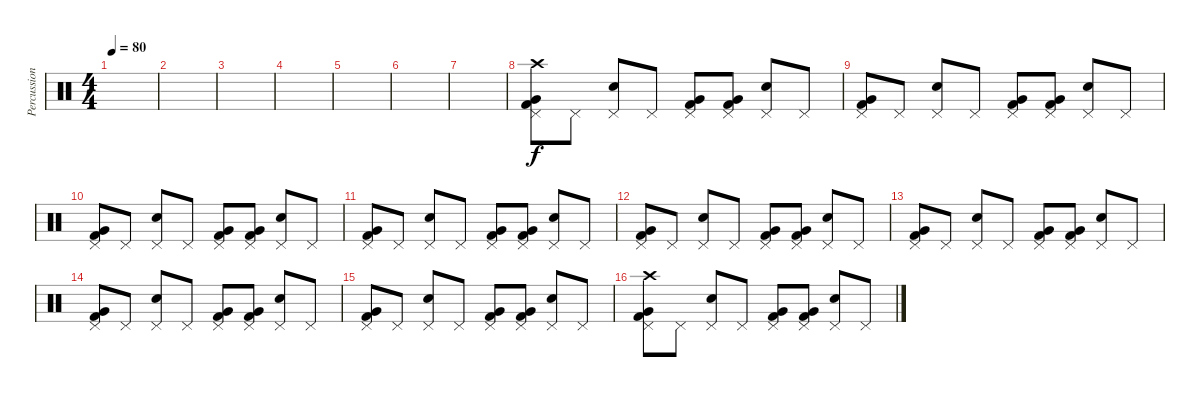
\track ("Percussion" "Percussion") {instrument percussion}
\staff {score}
\articulation defaults
\ts (4 4)
\tempo 80
\clef neutral
\ks c
|
|
|
|
|
|
|
("Crash high (hit)" "Pedal Hi-Hat (hit)" "Very Low Tom (hit)" "Kick (hit) 2").8 "Pedal Hi-Hat (hit)".8 ("Pedal Hi-Hat (hit)" "Electric Snare (hit)").8 "Pedal Hi-Hat (hit)".8 ("Pedal Hi-Hat (hit)" "Very Low Tom (hit)" "Kick (hit) 2").8 ("Pedal Hi-Hat (hit)" "Very Low Tom (hit)" "Kick (hit) 2").8 ("Pedal Hi-Hat (hit)" "Electric Snare (hit)").8 "Pedal Hi-Hat (hit)".8 |
("Pedal Hi-Hat (hit)" "Very Low Tom (hit)" "Kick (hit) 2").8 "Pedal Hi-Hat (hit)".8 ("Pedal Hi-Hat (hit)" "Electric Snare (hit)").8 "Pedal Hi-Hat (hit)".8 ("Pedal Hi-Hat (hit)" "Very Low Tom (hit)" "Kick (hit) 2").8 ("Pedal Hi-Hat (hit)" "Very Low Tom (hit)" "Kick (hit) 2").8 ("Pedal Hi-Hat (hit)" "Electric Snare (hit)").8 "Pedal Hi-Hat (hit)".8 |
("Pedal Hi-Hat (hit)" "Very Low Tom (hit)" "Kick (hit) 2").8 "Pedal Hi-Hat (hit)".8 ("Pedal Hi-Hat (hit)" "Electric Snare (hit)").8 "Pedal Hi-Hat (hit)".8 ("Pedal Hi-Hat (hit)" "Very Low Tom (hit)" "Kick (hit) 2").8 ("Pedal Hi-Hat (hit)" "Very Low Tom (hit)" "Kick (hit) 2").8 ("Pedal Hi-Hat (hit)" "Electric Snare (hit)").8 "Pedal Hi-Hat (hit)".8 |
("Pedal Hi-Hat (hit)" "Very Low Tom (hit)" "Kick (hit) 2").8 "Pedal Hi-Hat (hit)".8 ("Pedal Hi-Hat (hit)" "Electric Snare (hit)").8 "Pedal Hi-Hat (hit)".8 ("Pedal Hi-Hat (hit)" "Very Low Tom (hit)" "Kick (hit) 2").8 ("Pedal Hi-Hat (hit)" "Very Low Tom (hit)" "Kick (hit) 2").8 ("Pedal Hi-Hat (hit)" "Electric Snare (hit)").8 "Pedal Hi-Hat (hit)".8 |
("Pedal Hi-Hat (hit)" "Very Low Tom (hit)" "Kick (hit) 2").8 "Pedal Hi-Hat (hit)".8 ("Pedal Hi-Hat (hit)" "Electric Snare (hit)").8 "Pedal Hi-Hat (hit)".8 ("Pedal Hi-Hat (hit)" "Very Low Tom (hit)" "Kick (hit) 2").8 ("Pedal Hi-Hat (hit)" "Very Low Tom (hit)" "Kick (hit) 2").8 ("Pedal Hi-Hat (hit)" "Electric Snare (hit)").8 "Pedal Hi-Hat (hit)".8 |
("Pedal Hi-Hat (hit)" "Very Low Tom (hit)" "Kick (hit) 2").8 "Pedal Hi-Hat (hit)".8 ("Pedal Hi-Hat (hit)" "Electric Snare (hit)").8 "Pedal Hi-Hat (hit)".8 ("Pedal Hi-Hat (hit)" "Very Low Tom (hit)" "Kick (hit) 2").8 ("Pedal Hi-Hat (hit)" "Very Low Tom (hit)" "Kick (hit) 2").8 ("Pedal Hi-Hat (hit)" "Electric Snare (hit)").8 "Pedal Hi-Hat (hit)".8 |
("Pedal Hi-Hat (hit)" "Very Low Tom (hit)" "Kick (hit) 2").8 "Pedal Hi-Hat (hit)".8 ("Pedal Hi-Hat (hit)" "Electric Snare (hit)").8 "Pedal Hi-Hat (hit)".8 ("Pedal Hi-Hat (hit)" "Very Low Tom (hit)" "Kick (hit) 2").8 ("Pedal Hi-Hat (hit)" "Very Low Tom (hit)" "Kick (hit) 2").8 ("Pedal Hi-Hat (hit)" "Electric Snare (hit)").8 "Pedal Hi-Hat (hit)".8 |
("Pedal Hi-Hat (hit)" "Very Low Tom (hit)" "Kick (hit) 2").8 "Pedal Hi-Hat (hit)".8 ("Pedal Hi-Hat (hit)" "Electric Snare (hit)").8 "Pedal Hi-Hat (hit)".8 ("Pedal Hi-Hat (hit)" "Very Low Tom (hit)" "Kick (hit) 2").8 ("Pedal Hi-Hat (hit)" "Very Low Tom (hit)" "Kick (hit) 2").8 ("Pedal Hi-Hat (hit)" "Electric Snare (hit)").8 "Pedal Hi-Hat (hit)".8 |
("Crash high (hit)" "Pedal Hi-Hat (hit)" "Very Low Tom (hit)" "Kick (hit) 2").8 "Pedal Hi-Hat (hit)".8 ("Pedal Hi-Hat (hit)" "Electric Snare (hit)").8 "Pedal Hi-Hat (hit)".8 ("Pedal Hi-Hat (hit)" "Very Low Tom (hit)" "Kick (hit) 2").8 ("Pedal Hi-Hat (hit)" "Very Low Tom (hit)" "Kick (hit) 2").8 ("Pedal Hi-Hat (hit)" "Electric Snare (hit)").8 "Pedal Hi-Hat (hit)".8
